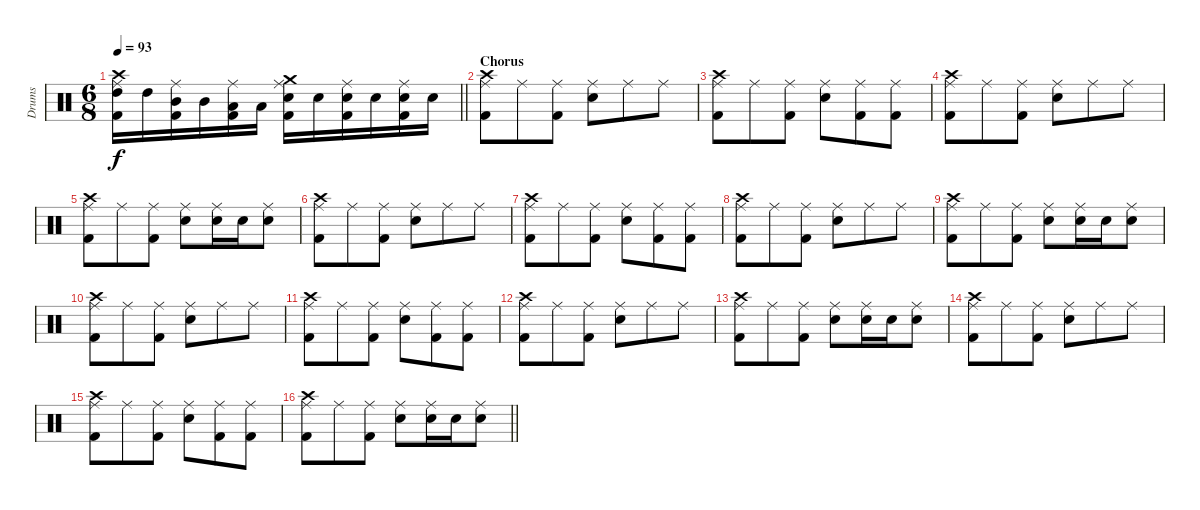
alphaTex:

\track ("Drums" "Drums") {instrument percussion}
\staff {score}
\articulation defaults
\ts (6 8)
\tempo 93
\clef neutral
\barLineRight lightlight
\ks c
("Crash high (hit)" "Ride (middle)" "High Tom (hit)" "Kick (hit) 2").16{dy f} "High Tom (hit)".16 ("Ride (middle)" "Mid Tom (hit)" "Kick (hit) 2").16 "Mid Tom (hit)".16 ("Ride (middle)" "Low Tom (hit)" "Kick (hit) 2").16 "Low Tom (hit)".16 ("Crash medium (hit)" "Ride (middle)" "Snare (hit) 2" "Kick (hit) 2").16 "Snare (hit) 2".16 ("Ride (middle)" "Snare (hit) 2" "Kick (hit) 2").16 "Snare (hit) 2".16 ("Ride (middle)" "Snare (hit) 2" "Kick (hit) 2").16 "Snare (hit) 2".16 |
\section ("" "Chorus")
("Crash high (hit)" "Ride (middle)" "Kick (hit) 2").8 "Ride (middle)".8 ("Ride (middle)" "Kick (hit) 2").8 ("Ride (middle)" "Snare (hit) 2").8 "Ride (middle)".8 "Ride (middle)".8 |
("Crash high (hit)" "Ride (middle)" "Kick (hit) 2").8 "Ride (middle)".8 ("Ride (middle)" "Kick (hit) 2").8 ("Ride (middle)" "Snare (hit) 2").8 ("Ride (middle)" "Kick (hit) 2").8 ("Ride (middle)" "Kick (hit) 2").8 |
("Crash high (hit)" "Ride (middle)" "Kick (hit) 2").8 "Ride (middle)".8 ("Ride (middle)" "Kick (hit) 2").8 ("Ride (middle)" "Snare (hit) 2").8 "Ride (middle)".8 "Ride (middle)".8 |
("Crash high (hit)" "Ride (middle)" "Kick (hit) 2").8 "Ride (middle)".8 ("Ride (middle)" "Kick (hit) 2").8 ("Ride (middle)" "Snare (hit) 2").8 ("Ride (middle)" "Snare (hit) 2").16 "Snare (hit) 2".16 ("Ride (middle)" "Snare (hit) 2").8 |
("Crash high (hit)" "Ride (middle)" "Kick (hit) 2").8 "Ride (middle)".8 ("Ride (middle)" "Kick (hit) 2").8 ("Ride (middle)" "Snare (hit) 2").8 "Ride (middle)".8 "Ride (middle)".8 |
("Crash high (hit)" "Ride (middle)" "Kick (hit) 2").8 "Ride (middle)".8 ("Ride (middle)" "Kick (hit) 2").8 ("Ride (middle)" "Snare (hit) 2").8 ("Ride (middle)" "Kick (hit) 2").8 ("Ride (middle)" "Kick (hit) 2").8 |
("Crash high (hit)" "Ride (middle)" "Kick (hit) 2").8 "Ride (middle)".8 ("Ride (middle)" "Kick (hit) 2").8 ("Ride (middle)" "Snare (hit) 2").8 "Ride (middle)".8 "Ride (middle)".8 |
("Crash high (hit)" "Ride (middle)" "Kick (hit) 2").8 "Ride (middle)".8 ("Ride (middle)" "Kick (hit) 2").8 ("Ride (middle)" "Snare (hit) 2").8 ("Ride (middle)" "Snare (hit) 2").16 "Snare (hit) 2".16 ("Ride (middle)" "Snare (hit) 2").8 |
("Crash high (hit)" "Ride (middle)" "Kick (hit) 2").8 "Ride (middle)".8 ("Ride (middle)" "Kick (hit) 2").8 ("Ride (middle)" "Snare (hit) 2").8 "Ride (middle)".8 "Ride (middle)".8 |
("Crash high (hit)" "Ride (middle)" "Kick (hit) 2").8 "Ride (middle)".8 ("Ride (middle)" "Kick (hit) 2").8 ("Ride (middle)" "Snare (hit) 2").8 ("Ride (middle)" "Kick (hit) 2").8 ("Ride (middle)" "Kick (hit) 2").8 |
("Crash high (hit)" "Ride (middle)" "Kick (hit) 2").8 "Ride (middle)".8 ("Ride (middle)" "Kick (hit) 2").8 ("Ride (middle)" "Snare (hit) 2").8 "Ride (middle)".8 "Ride (middle)".8 |
("Crash high (hit)" "Ride (middle)" "Kick (hit) 2").8 "Ride (middle)".8 ("Ride (middle)" "Kick (hit) 2").8 ("Ride (middle)" "Snare (hit) 2").8 ("Ride (middle)" "Snare (hit) 2").16 "Snare (hit) 2".16 ("Ride (middle)" "Snare (hit) 2").8 |
("Crash high (hit)" "Ride (middle)" "Kick (hit) 2").8 "Ride (middle)".8 ("Ride (middle)" "Kick (hit) 2").8 ("Ride (middle)" "Snare (hit) 2").8 "Ride (middle)".8 "Ride (middle)".8 |
("Crash high (hit)" "Ride (middle)" "Kick (hit) 2").8 "Ride (middle)".8 ("Ride (middle)" "Kick (hit) 2").8 ("Ride (middle)" "Snare (hit) 2").8 ("Ride (middle)" "Kick (hit) 2").8 ("Ride (middle)" "Kick (hit) 2").8 |
\barLineRight lightlight
("Crash high (hit)" "Ride (middle)" "Kick (hit) 2").8 "Ride (middle)".8 ("Ride (middle)" "Kick (hit) 2").8 ("Ride (middle)" "Snare (hit) 2").8 ("Ride (middle)" "Snare (hit) 2").16 "Snare (hit) 2".16 ("Ride (middle)" "Snare (hit) 2").8
